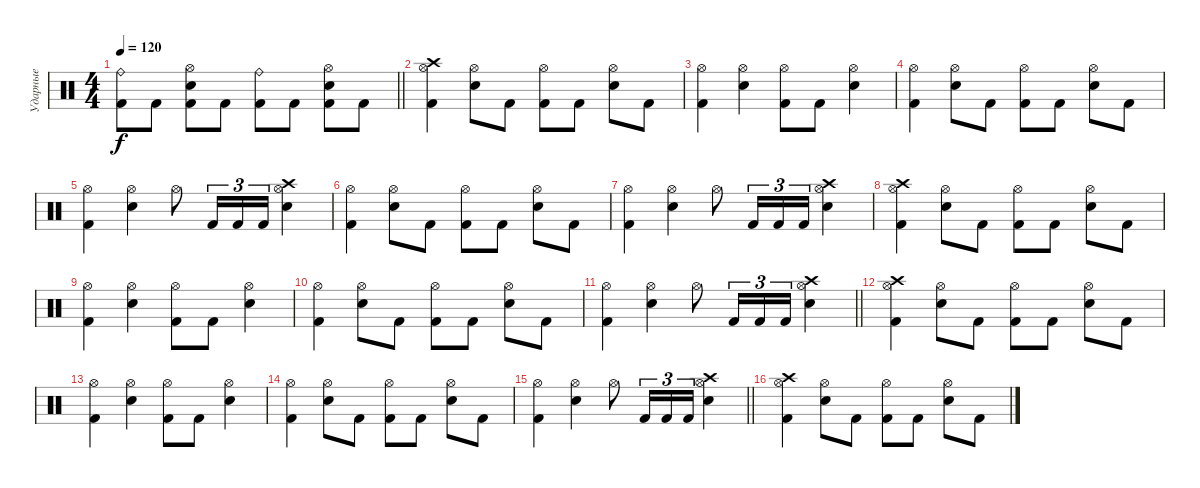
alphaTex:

\track ("Ударные" "Ударные") {instrument percussion}
\staff {score}
\articulation defaults
\ts (4 4)
\tempo 120
\clef neutral
\barLineRight lightlight
\ks c
("Ride (bell)" "Kick (hit) 2").8{dy f} "Kick (hit) 2".8 ("Snare (hit) 2" "Hi-Hat (open)" "Kick (hit) 2").8 "Kick (hit) 2".8 ("Ride (bell)" "Kick (hit) 2").8 "Kick (hit) 2".8 ("Snare (hit) 2" "Hi-Hat (open)" "Kick (hit) 2").8 "Kick (hit) 2".8 |
("Kick (hit) 2" "Hi-Hat (open)" "Crash high (hit)").4 ("Snare (hit) 2" "Hi-Hat (open)").8 "Kick (hit) 2".8 ("Kick (hit) 2" "Hi-Hat (open)").8 "Kick (hit) 2".8 ("Snare (hit) 2" "Hi-Hat (open)").8 "Kick (hit) 2".8 |
("Kick (hit) 2" "Hi-Hat (open)").4 ("Snare (hit) 2" "Hi-Hat (open)").4 ("Kick (hit) 2" "Hi-Hat (open)").8 "Kick (hit) 2".8 ("Snare (hit) 2" "Hi-Hat (open)").4 |
("Kick (hit) 2" "Hi-Hat (open)").4 ("Snare (hit) 2" "Hi-Hat (open)").8 "Kick (hit) 2".8 ("Kick (hit) 2" "Hi-Hat (open)").8 "Kick (hit) 2".8 ("Snare (hit) 2" "Hi-Hat (open)").8 "Kick (hit) 2".8 |
("Kick (hit) 2" "Hi-Hat (open)").4 ("Snare (hit) 2" "Hi-Hat (open)").4 "Hi-Hat (open)".8 "Kick (hit) 2".16{tu (3 2)} "Kick (hit) 2".16{tu (3 2)} "Kick (hit) 2".16{tu (3 2)} ("Snare (hit) 2" "Hi-Hat (open)" "Crash high (hit)").4 |
("Kick (hit) 2" "Hi-Hat (open)").4 ("Snare (hit) 2" "Hi-Hat (open)").8 "Kick (hit) 2".8 ("Kick (hit) 2" "Hi-Hat (open)").8 "Kick (hit) 2".8 ("Snare (hit) 2" "Hi-Hat (open)").8 "Kick (hit) 2".8 |
("Kick (hit) 2" "Hi-Hat (open)").4 ("Snare (hit) 2" "Hi-Hat (open)").4 "Hi-Hat (open)".8 "Kick (hit) 2".16{tu (3 2)} "Kick (hit) 2".16{tu (3 2)} "Kick (hit) 2".16{tu (3 2)} ("Snare (hit) 2" "Hi-Hat (open)" "Crash high (hit)").4 |
("Kick (hit) 2" "Hi-Hat (open)" "Crash high (hit)").4 ("Snare (hit) 2" "Hi-Hat (open)").8 "Kick (hit) 2".8 ("Kick (hit) 2" "Hi-Hat (open)").8 "Kick (hit) 2".8 ("Snare (hit) 2" "Hi-Hat (open)").8 "Kick (hit) 2".8 |
("Kick (hit) 2" "Hi-Hat (open)").4 ("Snare (hit) 2" "Hi-Hat (open)").4 ("Kick (hit) 2" "Hi-Hat (open)").8 "Kick (hit) 2".8 ("Snare (hit) 2" "Hi-Hat (open)").4 |
("Kick (hit) 2" "Hi-Hat (open)").4 ("Snare (hit) 2" "Hi-Hat (open)").8 "Kick (hit) 2".8 ("Kick (hit) 2" "Hi-Hat (open)").8 "Kick (hit) 2".8 ("Snare (hit) 2" "Hi-Hat (open)").8 "Kick (hit) 2".8 |
\barLineRight lightlight
("Kick (hit) 2" "Hi-Hat (open)").4 ("Snare (hit) 2" "Hi-Hat (open)").4 "Hi-Hat (open)".8 "Kick (hit) 2".16{tu (3 2)} "Kick (hit) 2".16{tu (3 2)} "Kick (hit) 2".16{tu (3 2)} ("Snare (hit) 2" "Hi-Hat (open)" "Crash high (hit)").4 |
("Kick (hit) 2" "Hi-Hat (open)" "Crash high (hit)").4 ("Snare (hit) 2" "Hi-Hat (open)").8 "Kick (hit) 2".8 ("Kick (hit) 2" "Hi-Hat (open)").8 "Kick (hit) 2".8 ("Snare (hit) 2" "Hi-Hat (open)").8 "Kick (hit) 2".8 |
("Kick (hit) 2" "Hi-Hat (open)").4 ("Snare (hit) 2" "Hi-Hat (open)").4 ("Kick (hit) 2" "Hi-Hat (open)").8 "Kick (hit) 2".8 ("Snare (hit) 2" "Hi-Hat (open)").4 |
("Kick (hit) 2" "Hi-Hat (open)").4 ("Snare (hit) 2" "Hi-Hat (open)").8 "Kick (hit) 2".8 ("Kick (hit) 2" "Hi-Hat (open)").8 "Kick (hit) 2".8 ("Snare (hit) 2" "Hi-Hat (open)").8 "Kick (hit) 2".8 |
\barLineRight lightlight
("Kick (hit) 2" "Hi-Hat (open)").4 ("Snare (hit) 2" "Hi-Hat (open)").4 "Hi-Hat (open)".8 "Kick (hit) 2".16{tu (3 2)} "Kick (hit) 2".16{tu (3 2)} "Kick (hit) 2".16{tu (3 2)} ("Snare (hit) 2" "Hi-Hat (open)" "Crash high (hit)").4 |
("Kick (hit) 2" "Hi-Hat (open)" "Crash high (hit)").4 ("Snare (hit) 2" "Hi-Hat (open)").8 "Kick (hit) 2".8 ("Kick (hit) 2" "Hi-Hat (open)").8 "Kick (hit) 2".8 ("Snare (hit) 2" "Hi-Hat (open)").8 "Kick (hit) 2".8
